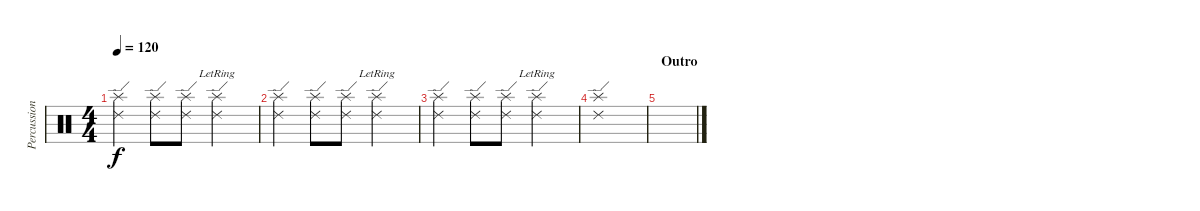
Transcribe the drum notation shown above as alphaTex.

\track ("Percussion" "Percussion") {instrument percussion}
\staff {score}
\articulation defaults
\ts (4 4)
\tempo 120
\clef neutral
\ks c
("Splash (hit)" "Ride (edge) 2").4{dy f} ("Splash (hit)" "Ride (edge) 2").8 ("Splash (hit)" "Ride (edge) 2").8 ("Splash (hit)"{lr} "Ride (edge) 2"{lr}).2 |
("Splash (hit)" "Ride (edge) 2").4 ("Splash (hit)" "Ride (edge) 2").8 ("Splash (hit)" "Ride (edge) 2").8 ("Splash (hit)"{lr} "Ride (edge) 2"{lr}).2 |
("Splash (hit)" "Ride (edge) 2").4 ("Splash (hit)" "Ride (edge) 2").8 ("Splash (hit)" "Ride (edge) 2").8 ("Splash (hit)"{lr} "Ride (edge) 2"{lr}).2 |
("Splash (hit)" "Ride (edge) 2").1 |
\section ("" "Outro")
